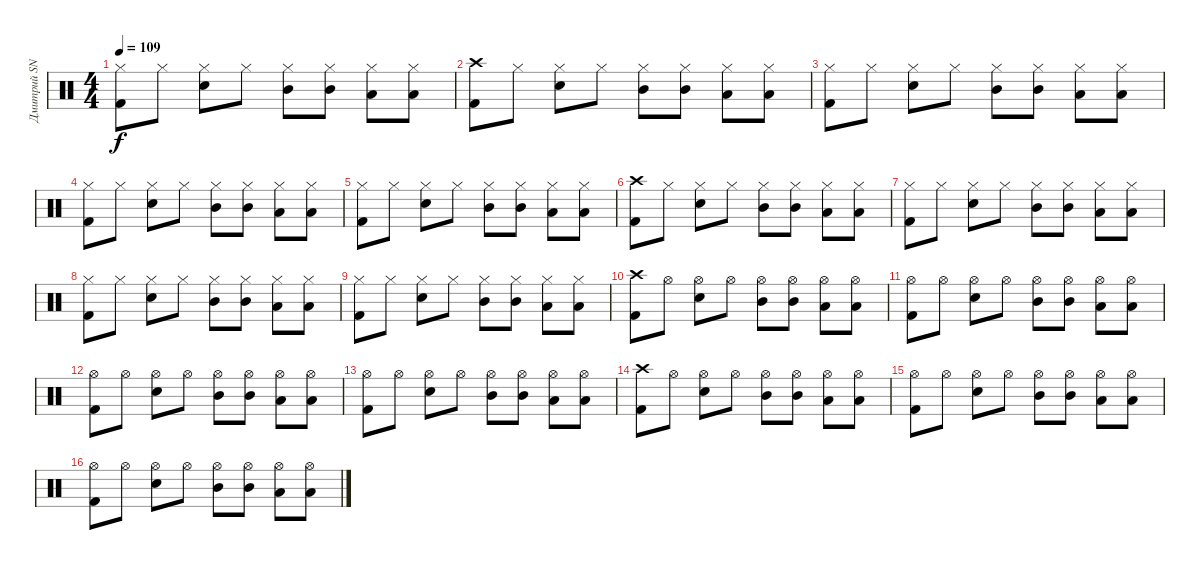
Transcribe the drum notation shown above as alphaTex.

\track ("Дмитрий SNAKE Хакимов" "Дмитрий SN") {instrument percussion}
\staff {score}
\articulation defaults
\ts (4 4)
\tempo 109
\clef neutral
\ks c
("Hi-Hat (closed)" "Kick (hit) 2").8{dy f} "Hi-Hat (closed)".8 ("Hi-Hat (closed)" "Snare (hit) 2").8 "Hi-Hat (closed)".8 ("Hi-Hat (closed)" "Mid Tom (hit)").8 ("Hi-Hat (closed)" "Mid Tom (hit)").8 ("Hi-Hat (closed)" "Low Tom (hit)").8 ("Hi-Hat (closed)" "Low Tom (hit)").8 |
("Crash high (hit)" "Kick (hit) 2").8 "Hi-Hat (closed)".8 ("Hi-Hat (closed)" "Snare (hit) 2").8 "Hi-Hat (closed)".8 ("Hi-Hat (closed)" "Mid Tom (hit)").8 ("Hi-Hat (closed)" "Mid Tom (hit)").8 ("Hi-Hat (closed)" "Low Tom (hit)").8 ("Hi-Hat (closed)" "Low Tom (hit)").8 |
("Hi-Hat (closed)" "Kick (hit) 2").8 "Hi-Hat (closed)".8 ("Hi-Hat (closed)" "Snare (hit) 2").8 "Hi-Hat (closed)".8 ("Hi-Hat (closed)" "Mid Tom (hit)").8 ("Hi-Hat (closed)" "Mid Tom (hit)").8 ("Hi-Hat (closed)" "Low Tom (hit)").8 ("Hi-Hat (closed)" "Low Tom (hit)").8 |
("Hi-Hat (closed)" "Kick (hit) 2").8 "Hi-Hat (closed)".8 ("Hi-Hat (closed)" "Snare (hit) 2").8 "Hi-Hat (closed)".8 ("Hi-Hat (closed)" "Mid Tom (hit)").8 ("Hi-Hat (closed)" "Mid Tom (hit)").8 ("Hi-Hat (closed)" "Low Tom (hit)").8 ("Hi-Hat (closed)" "Low Tom (hit)").8 |
("Hi-Hat (closed)" "Kick (hit) 2").8 "Hi-Hat (closed)".8 ("Hi-Hat (closed)" "Snare (hit) 2").8 "Hi-Hat (closed)".8 ("Hi-Hat (closed)" "Mid Tom (hit)").8 ("Hi-Hat (closed)" "Mid Tom (hit)").8 ("Hi-Hat (closed)" "Low Tom (hit)").8 ("Hi-Hat (closed)" "Low Tom (hit)").8 |
("Crash high (hit)" "Kick (hit) 2").8 "Hi-Hat (closed)".8 ("Hi-Hat (closed)" "Snare (hit) 2").8 "Hi-Hat (closed)".8 ("Hi-Hat (closed)" "Mid Tom (hit)").8 ("Hi-Hat (closed)" "Mid Tom (hit)").8 ("Hi-Hat (closed)" "Low Tom (hit)").8 ("Hi-Hat (closed)" "Low Tom (hit)").8 |
("Hi-Hat (closed)" "Kick (hit) 2").8 "Hi-Hat (closed)".8 ("Hi-Hat (closed)" "Snare (hit) 2").8 "Hi-Hat (closed)".8 ("Hi-Hat (closed)" "Mid Tom (hit)").8 ("Hi-Hat (closed)" "Mid Tom (hit)").8 ("Hi-Hat (closed)" "Low Tom (hit)").8 ("Hi-Hat (closed)" "Low Tom (hit)").8 |
("Hi-Hat (closed)" "Kick (hit) 2").8 "Hi-Hat (closed)".8 ("Hi-Hat (closed)" "Snare (hit) 2").8 "Hi-Hat (closed)".8 ("Hi-Hat (closed)" "Mid Tom (hit)").8 ("Hi-Hat (closed)" "Mid Tom (hit)").8 ("Hi-Hat (closed)" "Low Tom (hit)").8 ("Hi-Hat (closed)" "Low Tom (hit)").8 |
("Hi-Hat (closed)" "Kick (hit) 2").8 "Hi-Hat (closed)".8 ("Hi-Hat (closed)" "Snare (hit) 2").8 "Hi-Hat (closed)".8 ("Hi-Hat (closed)" "Mid Tom (hit)").8 ("Hi-Hat (closed)" "Mid Tom (hit)").8 ("Hi-Hat (closed)" "Low Tom (hit)").8 ("Hi-Hat (closed)" "Low Tom (hit)").8 |
("Crash high (hit)" "Kick (hit) 2").8 "Hi-Hat (open)".8 ("Hi-Hat (open)" "Snare (hit) 2").8 "Hi-Hat (open)".8 ("Hi-Hat (open)" "Mid Tom (hit)").8 ("Hi-Hat (open)" "Mid Tom (hit)").8 ("Hi-Hat (open)" "Low Tom (hit)").8 ("Hi-Hat (open)" "Low Tom (hit)").8 |
("Hi-Hat (open)" "Kick (hit) 2").8 "Hi-Hat (open)".8 ("Hi-Hat (open)" "Snare (hit) 2").8 "Hi-Hat (open)".8 ("Hi-Hat (open)" "Mid Tom (hit)").8 ("Hi-Hat (open)" "Mid Tom (hit)").8 ("Hi-Hat (open)" "Low Tom (hit)").8 ("Hi-Hat (open)" "Low Tom (hit)").8 |
("Hi-Hat (open)" "Kick (hit) 2").8 "Hi-Hat (open)".8 ("Hi-Hat (open)" "Snare (hit) 2").8 "Hi-Hat (open)".8 ("Hi-Hat (open)" "Mid Tom (hit)").8 ("Hi-Hat (open)" "Mid Tom (hit)").8 ("Hi-Hat (open)" "Low Tom (hit)").8 ("Hi-Hat (open)" "Low Tom (hit)").8 |
("Hi-Hat (open)" "Kick (hit) 2").8 "Hi-Hat (open)".8 ("Hi-Hat (open)" "Snare (hit) 2").8 "Hi-Hat (open)".8 ("Hi-Hat (open)" "Mid Tom (hit)").8 ("Hi-Hat (open)" "Mid Tom (hit)").8 ("Hi-Hat (open)" "Low Tom (hit)").8 ("Hi-Hat (open)" "Low Tom (hit)").8 |
("Crash high (hit)" "Kick (hit) 2").8 "Hi-Hat (open)".8 ("Hi-Hat (open)" "Snare (hit) 2").8 "Hi-Hat (open)".8 ("Hi-Hat (open)" "Mid Tom (hit)").8 ("Hi-Hat (open)" "Mid Tom (hit)").8 ("Hi-Hat (open)" "Low Tom (hit)").8 ("Hi-Hat (open)" "Low Tom (hit)").8 |
("Hi-Hat (open)" "Kick (hit) 2").8 "Hi-Hat (open)".8 ("Hi-Hat (open)" "Snare (hit) 2").8 "Hi-Hat (open)".8 ("Hi-Hat (open)" "Mid Tom (hit)").8 ("Hi-Hat (open)" "Mid Tom (hit)").8 ("Hi-Hat (open)" "Low Tom (hit)").8 ("Hi-Hat (open)" "Low Tom (hit)").8 |
("Hi-Hat (open)" "Kick (hit) 2").8 "Hi-Hat (open)".8 ("Hi-Hat (open)" "Snare (hit) 2").8 "Hi-Hat (open)".8 ("Hi-Hat (open)" "Mid Tom (hit)").8 ("Hi-Hat (open)" "Mid Tom (hit)").8 ("Hi-Hat (open)" "Low Tom (hit)").8 ("Hi-Hat (open)" "Low Tom (hit)").8
